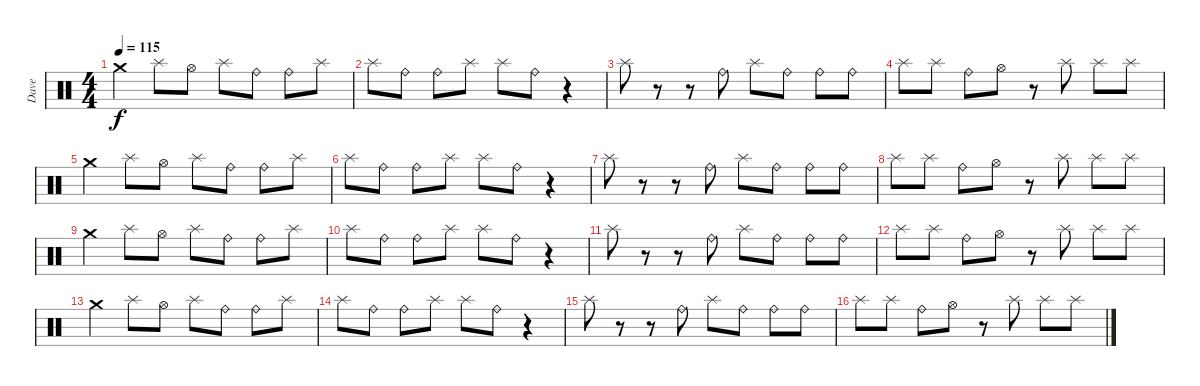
\track ("Dave" "Dave") {instrument percussion}
\staff {score}
\articulation defaults
\ts (4 4)
\tempo 115
\clef neutral
\ks c "Crash medium (hit)".4{dy f} "Splash (hit)".8 "Hi-Hat (open)".8 "Splash (hit)".8 "Ride (bell)".8 "Ride (bell)".8 "Splash (hit)".8
|
"Splash (hit)".8 "Ride (bell)".8 "Ride (bell)".8 "Splash (hit)".8 "Splash (hit)".8 "Ride (bell)".8 r.4 |
"Splash (hit)".8 r.8 r.8 "Ride (bell)".8 "Splash (hit)".8 "Ride (bell)".8 "Ride (bell)".8 "Ride (bell)".8 |
"Splash (hit)".8 "Splash (hit)".8 "Ride (bell)".8 "Hi-Hat (open)".8 r.8 "Splash (hit)".8 "Splash (hit)".8 "Splash (hit)".8 |
"Crash medium (hit)".4 "Splash (hit)".8 "Hi-Hat (open)".8 "Splash (hit)".8 "Ride (bell)".8 "Ride (bell)".8 "Splash (hit)".8 |
"Splash (hit)".8 "Ride (bell)".8 "Ride (bell)".8 "Splash (hit)".8 "Splash (hit)".8 "Ride (bell)".8 r.4 |
"Splash (hit)".8 r.8 r.8 "Ride (bell)".8 "Splash (hit)".8 "Ride (bell)".8 "Ride (bell)".8 "Ride (bell)".8 |
"Splash (hit)".8 "Splash (hit)".8 "Ride (bell)".8 "Hi-Hat (open)".8 r.8 "Splash (hit)".8 "Splash (hit)".8 "Splash (hit)".8 |
"Crash medium (hit)".4 "Splash (hit)".8 "Hi-Hat (open)".8 "Splash (hit)".8 "Ride (bell)".8 "Ride (bell)".8 "Splash (hit)".8 |
"Splash (hit)".8 "Ride (bell)".8 "Ride (bell)".8 "Splash (hit)".8 "Splash (hit)".8 "Ride (bell)".8 r.4 |
"Splash (hit)".8 r.8 r.8 "Ride (bell)".8 "Splash (hit)".8 "Ride (bell)".8 "Ride (bell)".8 "Ride (bell)".8 |
"Splash (hit)".8 "Splash (hit)".8 "Ride (bell)".8 "Hi-Hat (open)".8 r.8 "Splash (hit)".8 "Splash (hit)".8 "Splash (hit)".8 |
"Crash medium (hit)".4 "Splash (hit)".8 "Hi-Hat (open)".8 "Splash (hit)".8 "Ride (bell)".8 "Ride (bell)".8 "Splash (hit)".8 |
"Splash (hit)".8 "Ride (bell)".8 "Ride (bell)".8 "Splash (hit)".8 "Splash (hit)".8 "Ride (bell)".8 r.4 |
"Splash (hit)".8 r.8 r.8 "Ride (bell)".8 "Splash (hit)".8 "Ride (bell)".8 "Ride (bell)".8 "Ride (bell)".8 |
"Splash (hit)".8 "Splash (hit)".8 "Ride (bell)".8 "Hi-Hat (open)".8 r.8 "Splash (hit)".8 "Splash (hit)".8 "Splash (hit)".8
